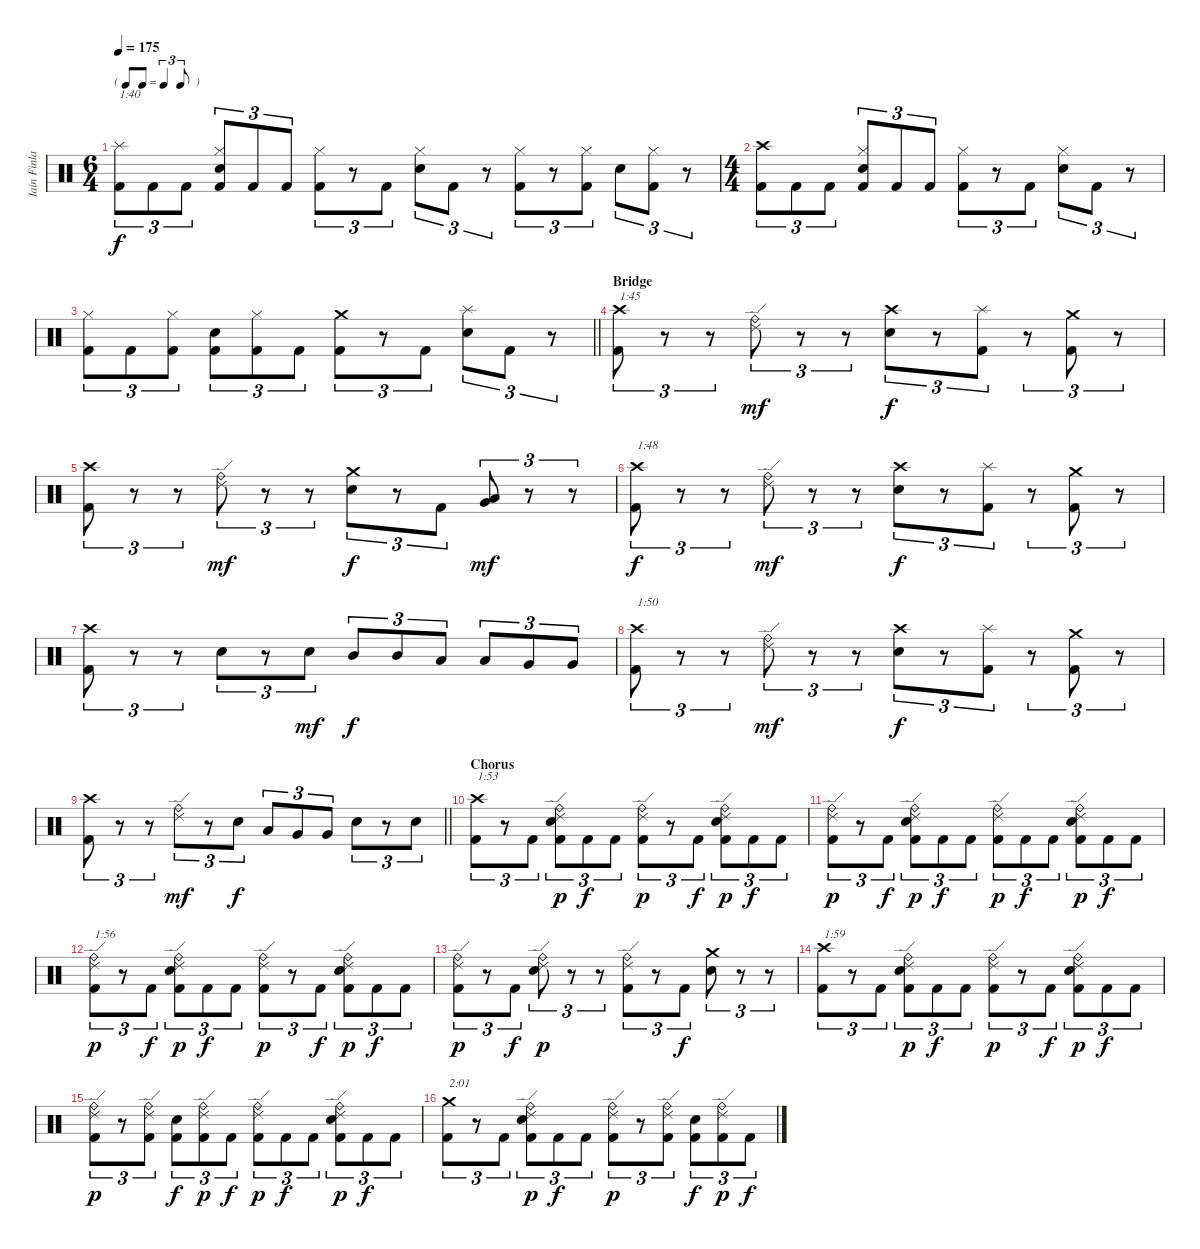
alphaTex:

\track ("Iain Finlay" "Iain Finla") {instrument percussion}
\staff {score}
\articulation defaults
\ts (6 4)
\tf triplet8th
\tempo 175
\clef neutral
\ks c
("Splash (hit)" "Kick (hit) 2").8{tu (3 2) txt "1:40" dy f} "Kick (hit) 2".8{tu (3 2)} "Kick (hit) 2".8{tu (3 2)} ("Hi-Hat (closed)" "Electric Snare (hit)" "Kick (hit) 2").8{tu (3 2)} "Kick (hit) 2".8{tu (3 2)} "Kick (hit) 2".8{tu (3 2)} ("Hi-Hat (closed)" "Kick (hit) 2").8{tu (3 2)} r.8{tu (3 2)} "Kick (hit) 2".8{tu (3 2)} ("Hi-Hat (closed)" "Electric Snare (hit)").8{tu (3 2)} "Kick (hit) 2".8{tu (3 2)} r.8{tu (3 2)} ("Hi-Hat (closed)" "Kick (hit) 2").8{tu (3 2)} r.8{tu (3 2)} ("Hi-Hat (closed)" "Kick (hit) 2").8{tu (3 2)} "Electric Snare (hit)".8{tu (3 2)} ("Hi-Hat (closed)" "Kick (hit) 2").8{tu (3 2)} r.8{tu (3 2)} |
\ts (4 4)
("Crash high (hit)" "Kick (hit) 2").8{tu (3 2)} "Kick (hit) 2".8{tu (3 2)} "Kick (hit) 2".8{tu (3 2)} ("Hi-Hat (closed)" "Electric Snare (hit)" "Kick (hit) 2").8{tu (3 2)} "Kick (hit) 2".8{tu (3 2)} "Kick (hit) 2".8{tu (3 2)} ("Hi-Hat (closed)" "Kick (hit) 2").8{tu (3 2)} r.8{tu (3 2)} "Kick (hit) 2".8{tu (3 2)} ("Hi-Hat (closed)" "Electric Snare (hit)").8{tu (3 2)} "Kick (hit) 2".8{tu (3 2)} r.8{tu (3 2)} |
\barLineRight lightlight
("Hi-Hat (closed)" "Kick (hit) 2").8{tu (3 2)} "Kick (hit) 2".8{tu (3 2)} ("Hi-Hat (closed)" "Kick (hit) 2").8{tu (3 2)} ("Electric Snare (hit)" "Kick (hit) 2").8{tu (3 2)} ("Hi-Hat (closed)" "Kick (hit) 2").8{tu (3 2)} "Kick (hit) 2".8{tu (3 2)} ("Crash medium (hit)" "Kick (hit) 2").8{tu (3 2)} r.8{tu (3 2)} "Kick (hit) 2".8{tu (3 2)} ("Splash (hit)" "Electric Snare (hit)").8{tu (3 2)} "Kick (hit) 2".8{tu (3 2)} r.8{tu (3 2)} |
\section ("" "Bridge")
("Crash high (hit)" "Kick (hit) 2").8{tu (3 2) txt "1:45"} r.8{tu (3 2)} r.8{tu (3 2)} ("Ride (edge) 2" "Ride (bell)").8{tu (3 2) dy mf} r.8{tu (3 2)} r.8{tu (3 2)} ("Crash high (hit)" "Electric Snare (hit)").8{tu (3 2) dy f} r.8{tu (3 2)} ("Splash (hit)" "Kick (hit) 2").8{tu (3 2)} r.8{tu (3 2)} ("Crash medium (hit)" "Kick (hit) 2").8{tu (3 2)} r.8{tu (3 2)} |
("Crash high (hit)" "Kick (hit) 2").8{tu (3 2)} r.8{tu (3 2)} r.8{tu (3 2)} ("Ride (edge) 2" "Ride (bell)").8{tu (3 2) dy mf} r.8{tu (3 2)} r.8{tu (3 2)} ("Crash medium (hit)" "Electric Snare (hit)").8{tu (3 2) dy f} r.8{tu (3 2)} "Kick (hit) 2".8{tu (3 2)} ("Very Low Tom (hit)" "Low Floor Tom (hit)").8{tu (3 2) dy mf} r.8{tu (3 2)} r.8{tu (3 2)} |
("Crash high (hit)" "Kick (hit) 2").8{tu (3 2) txt "1:48" dy f} r.8{tu (3 2)} r.8{tu (3 2)} ("Ride (edge) 2" "Ride (bell)").8{tu (3 2) dy mf} r.8{tu (3 2)} r.8{tu (3 2)} ("Crash high (hit)" "Electric Snare (hit)").8{tu (3 2) dy f} r.8{tu (3 2)} ("Splash (hit)" "Kick (hit) 2").8{tu (3 2)} r.8{tu (3 2)} ("Crash medium (hit)" "Kick (hit) 2").8{tu (3 2)} r.8{tu (3 2)} |
("Crash high (hit)" "Kick (hit) 2").8{tu (3 2)} r.8{tu (3 2)} r.8{tu (3 2)} "Electric Snare (hit)".8{tu (3 2)} r.8{tu (3 2)} "Electric Snare (hit)".8{tu (3 2) dy mf} "Mid Tom (hit)".8{tu (3 2) dy f} "Mid Tom (hit)".8{tu (3 2)} "Low Tom (hit)".8{tu (3 2)} "Low Tom (hit)".8{tu (3 2)} "Very Low Tom (hit)".8{tu (3 2)} "Very Low Tom (hit)".8{tu (3 2)} |
("Crash high (hit)" "Kick (hit) 2").8{tu (3 2) txt "1:50"} r.8{tu (3 2)} r.8{tu (3 2)} ("Ride (edge) 2" "Ride (bell)").8{tu (3 2) dy mf} r.8{tu (3 2)} r.8{tu (3 2)} ("Crash high (hit)" "Electric Snare (hit)").8{tu (3 2) dy f} r.8{tu (3 2)} ("Splash (hit)" "Kick (hit) 2").8{tu (3 2)} r.8{tu (3 2)} ("Crash medium (hit)" "Kick (hit) 2").8{tu (3 2)} r.8{tu (3 2)} |
\barLineRight lightlight
("Crash high (hit)" "Kick (hit) 2").8{tu (3 2)} r.8{tu (3 2)} r.8{tu (3 2)} ("Ride (edge) 2" "Ride (bell)").8{tu (3 2) dy mf} r.8{tu (3 2)} "Electric Snare (hit)".8{tu (3 2) dy f} "Low Tom (hit)".8{tu (3 2)} "Very Low Tom (hit)".8{tu (3 2)} "Very Low Tom (hit)".8{tu (3 2)} "Electric Snare (hit)".8{tu (3 2)} r.8{tu (3 2)} "Electric Snare (hit)".8{tu (3 2)} |
\section ("" "Chorus")
("Crash high (hit)" "Kick (hit) 2").8{tu (3 2) txt "1:53"} r.8{tu (3 2)} "Kick (hit) 2".8{tu (3 2)} ("Ride (edge) 2" "Ride (bell)" "Electric Snare (hit)" "Kick (hit) 2").8{tu (3 2) dy p} "Kick (hit) 2".8{tu (3 2) dy f} "Kick (hit) 2".8{tu (3 2)} ("Ride (edge) 2" "Ride (bell)" "Kick (hit) 2").8{tu (3 2) dy p} r.8{tu (3 2)} "Kick (hit) 2".8{tu (3 2) dy f} ("Ride (edge) 2" "Ride (bell)" "Electric Snare (hit)" "Kick (hit) 2").8{tu (3 2) dy p} "Kick (hit) 2".8{tu (3 2) dy f} "Kick (hit) 2".8{tu (3 2)} |
("Ride (edge) 2" "Ride (bell)" "Kick (hit) 2").8{tu (3 2) dy p} r.8{tu (3 2)} "Kick (hit) 2".8{tu (3 2) dy f} ("Ride (edge) 2" "Ride (bell)" "Electric Snare (hit)" "Kick (hit) 2").8{tu (3 2) dy p} "Kick (hit) 2".8{tu (3 2) dy f} "Kick (hit) 2".8{tu (3 2)} ("Ride (edge) 2" "Ride (bell)" "Kick (hit) 2").8{tu (3 2) dy p} "Kick (hit) 2".8{tu (3 2) dy f} "Kick (hit) 2".8{tu (3 2)} ("Ride (edge) 2" "Ride (bell)" "Electric Snare (hit)" "Kick (hit) 2").8{tu (3 2) dy p} "Kick (hit) 2".8{tu (3 2) dy f} "Kick (hit) 2".8{tu (3 2)} |
("Ride (edge) 2" "Ride (bell)" "Kick (hit) 2").8{tu (3 2) txt "1:56" dy p} r.8{tu (3 2)} "Kick (hit) 2".8{tu (3 2) dy f} ("Ride (edge) 2" "Ride (bell)" "Electric Snare (hit)" "Kick (hit) 2").8{tu (3 2) dy p} "Kick (hit) 2".8{tu (3 2) dy f} "Kick (hit) 2".8{tu (3 2)} ("Ride (edge) 2" "Ride (bell)" "Kick (hit) 2").8{tu (3 2) dy p} r.8{tu (3 2)} "Kick (hit) 2".8{tu (3 2) dy f} ("Ride (edge) 2" "Ride (bell)" "Electric Snare (hit)" "Kick (hit) 2").8{tu (3 2) dy p} "Kick (hit) 2".8{tu (3 2) dy f} "Kick (hit) 2".8{tu (3 2)} |
("Ride (edge) 2" "Ride (bell)" "Kick (hit) 2").8{tu (3 2) dy p} r.8{tu (3 2)} "Kick (hit) 2".8{tu (3 2) dy f} ("Ride (edge) 2" "Ride (bell)" "Electric Snare (hit)").8{tu (3 2) dy p} r.8{tu (3 2)} r.8{tu (3 2)} ("Ride (edge) 2" "Ride (bell)" "Kick (hit) 2").8{tu (3 2)} r.8{tu (3 2)} "Kick (hit) 2".8{tu (3 2) dy f} ("Crash medium (hit)" "Electric Snare (hit)").8{tu (3 2)} r.8{tu (3 2)} r.8{tu (3 2)} |
("Crash high (hit)" "Kick (hit) 2").8{tu (3 2) txt "1:59"} r.8{tu (3 2)} "Kick (hit) 2".8{tu (3 2)} ("Ride (edge) 2" "Ride (bell)" "Electric Snare (hit)" "Kick (hit) 2").8{tu (3 2) dy p} "Kick (hit) 2".8{tu (3 2) dy f} "Kick (hit) 2".8{tu (3 2)} ("Ride (edge) 2" "Ride (bell)" "Kick (hit) 2").8{tu (3 2) dy p} r.8{tu (3 2)} "Kick (hit) 2".8{tu (3 2) dy f} ("Ride (edge) 2" "Ride (bell)" "Electric Snare (hit)" "Kick (hit) 2").8{tu (3 2) dy p} "Kick (hit) 2".8{tu (3 2) dy f} "Kick (hit) 2".8{tu (3 2)} |
("Ride (edge) 2" "Ride (bell)" "Kick (hit) 2").8{tu (3 2) dy p} r.8{tu (3 2)} ("Ride (edge) 2" "Ride (bell)" "Kick (hit) 2").8{tu (3 2)} ("Electric Snare (hit)" "Kick (hit) 2").8{tu (3 2) dy f} ("Ride (edge) 2" "Ride (bell)" "Kick (hit) 2").8{tu (3 2) dy p} "Kick (hit) 2".8{tu (3 2) dy f} ("Ride (edge) 2" "Ride (bell)" "Kick (hit) 2").8{tu (3 2) dy p} "Kick (hit) 2".8{tu (3 2) dy f} "Kick (hit) 2".8{tu (3 2)} ("Ride (edge) 2" "Ride (bell)" "Electric Snare (hit)" "Kick (hit) 2").8{tu (3 2) dy p} "Kick (hit) 2".8{tu (3 2) dy f} "Kick (hit) 2".8{tu (3 2)} |
("Crash medium (hit)" "Kick (hit) 2").8{tu (3 2) txt "2:01"} r.8{tu (3 2)} "Kick (hit) 2".8{tu (3 2)} ("Ride (edge) 2" "Ride (bell)" "Electric Snare (hit)" "Kick (hit) 2").8{tu (3 2) dy p} "Kick (hit) 2".8{tu (3 2) dy f} "Kick (hit) 2".8{tu (3 2)} ("Ride (edge) 2" "Ride (bell)" "Kick (hit) 2").8{tu (3 2) dy p} r.8{tu (3 2)} ("Ride (edge) 2" "Ride (bell)" "Kick (hit) 2").8{tu (3 2)} ("Electric Snare (hit)" "Kick (hit) 2").8{tu (3 2) dy f} ("Ride (edge) 2" "Ride (bell)" "Kick (hit) 2").8{tu (3 2) dy p} "Kick (hit) 2".8{tu (3 2) dy f}
